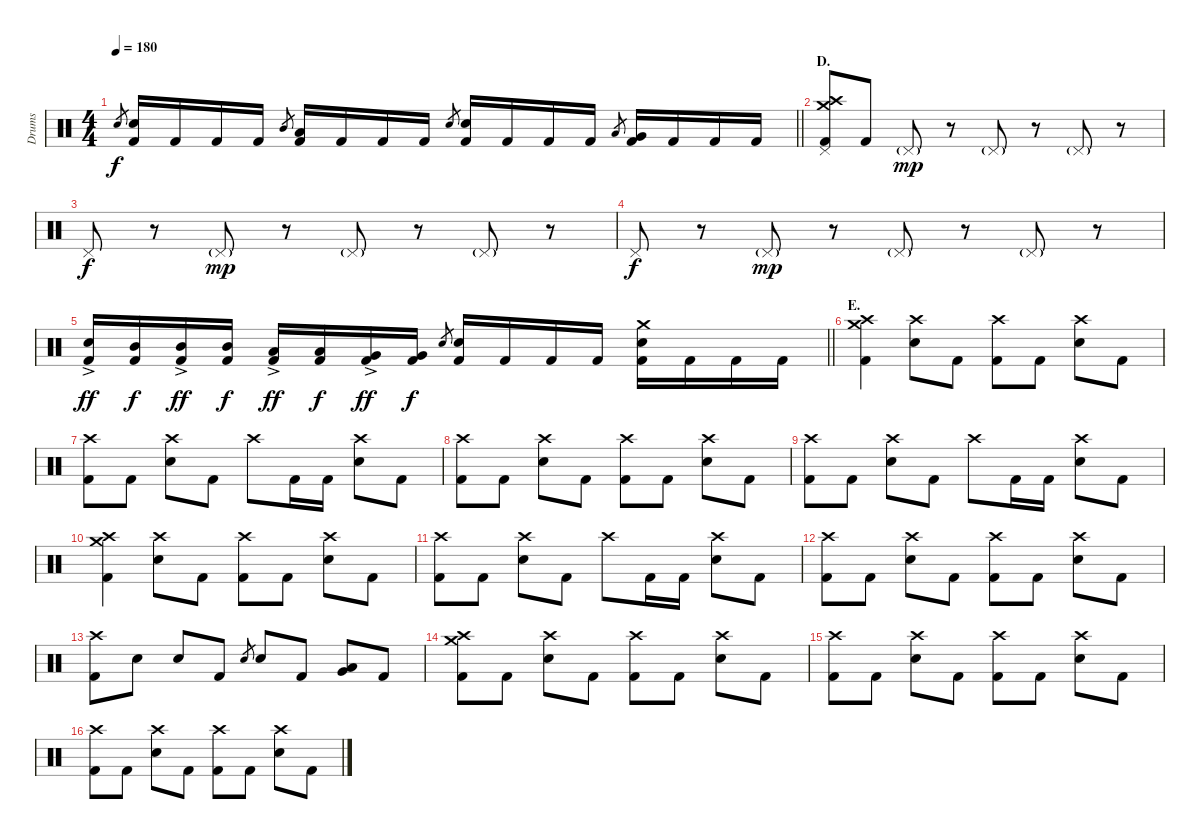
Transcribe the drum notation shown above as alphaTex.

\track ("Drums" "Drums") {instrument percussion}
\staff {score}
\articulation defaults
\ts (4 4)
\tempo 180
\clef neutral
\barLineRight lightlight
\ks c "Electric Snare (hit)".8{gr dy f}
("Electric Snare (hit)" "Kick (hit) 2").16 "Kick (hit) 2".16 "Kick (hit) 2".16 "Kick (hit) 2".16 "Mid Tom (hit)".8{gr} ("Low Tom (hit)" "Kick (hit) 2").16 "Kick (hit) 2".16 "Kick (hit) 2".16 "Kick (hit) 2".16 "Electric Snare (hit)".8{gr} ("Electric Snare (hit)" "Kick (hit) 2").16 "Kick (hit) 2".16 "Kick (hit) 2".16 "Kick (hit) 2".16 "Low Tom (hit)".8{gr} ("Very Low Tom (hit)" "Kick (hit) 2").16 "Kick (hit) 2".16 "Kick (hit) 2".16 "Kick (hit) 2".16 |
\section ("" "D.")
("Crash medium (hit)" "Crash high (hit)" "Pedal Hi-Hat (hit)" "Kick (hit) 2").8 "Kick (hit) 2".8 "Pedal Hi-Hat (hit)"{g}.8{dy mp} r.8 "Pedal Hi-Hat (hit)"{g}.8 r.8 "Pedal Hi-Hat (hit)"{g}.8 r.8 |
"Pedal Hi-Hat (hit)".8{dy f} r.8 "Pedal Hi-Hat (hit)"{g}.8{dy mp} r.8 "Pedal Hi-Hat (hit)"{g}.8 r.8 "Pedal Hi-Hat (hit)"{g}.8 r.8 |
"Pedal Hi-Hat (hit)".8{dy f} r.8 "Pedal Hi-Hat (hit)"{g}.8{dy mp} r.8 "Pedal Hi-Hat (hit)"{g}.8 r.8 "Pedal Hi-Hat (hit)"{g}.8 r.8 |
\barLineRight lightlight
("Electric Snare (hit)"{ac} "Kick (hit) 2").16{dy ff} ("Mid Tom (hit)" "Kick (hit) 2").16{dy f} ("Mid Tom (hit)"{ac} "Kick (hit) 2").16{dy ff} ("Mid Tom (hit)" "Kick (hit) 2").16{dy f} ("Low Tom (hit)"{ac} "Kick (hit) 2").16{dy ff} ("Low Tom (hit)" "Kick (hit) 2").16{dy f} ("Very Low Tom (hit)"{ac} "Kick (hit) 2").16{dy ff} ("Very Low Tom (hit)" "Kick (hit) 2").16{dy f} "Electric Snare (hit)".8{gr} ("Electric Snare (hit)" "Kick (hit) 2").16 "Kick (hit) 2".16 "Kick (hit) 2".16 "Kick (hit) 2".16 ("Crash medium (hit)" "Electric Snare (hit)" "Kick (hit) 2").16 "Kick (hit) 2".16 "Kick (hit) 2".16 "Kick (hit) 2".16 |
\section ("" "E.")
("Crash medium (hit)" "Crash high (hit)" "Kick (hit) 2").4 ("Crash high (hit)" "Electric Snare (hit)").8 "Kick (hit) 2".8 ("Crash high (hit)" "Kick (hit) 2").8 "Kick (hit) 2".8 ("Crash high (hit)" "Electric Snare (hit)").8 "Kick (hit) 2".8 |
("Crash high (hit)" "Kick (hit) 2").8 "Kick (hit) 2".8 ("Crash high (hit)" "Electric Snare (hit)").8 "Kick (hit) 2".8 "Crash high (hit)".8 "Kick (hit) 2".16 "Kick (hit) 2".16 ("Crash high (hit)" "Electric Snare (hit)").8 "Kick (hit) 2".8 |
("Crash high (hit)" "Kick (hit) 2").8 "Kick (hit) 2".8 ("Crash high (hit)" "Electric Snare (hit)").8 "Kick (hit) 2".8 ("Crash high (hit)" "Kick (hit) 2").8 "Kick (hit) 2".8 ("Crash high (hit)" "Electric Snare (hit)").8 "Kick (hit) 2".8 |
("Crash high (hit)" "Kick (hit) 2").8 "Kick (hit) 2".8 ("Crash high (hit)" "Electric Snare (hit)").8 "Kick (hit) 2".8 "Crash high (hit)".8 "Kick (hit) 2".16 "Kick (hit) 2".16 ("Crash high (hit)" "Electric Snare (hit)").8 "Kick (hit) 2".8 |
("Crash medium (hit)" "Crash high (hit)" "Kick (hit) 2").4 ("Crash high (hit)" "Electric Snare (hit)").8 "Kick (hit) 2".8 ("Crash high (hit)" "Kick (hit) 2").8 "Kick (hit) 2".8 ("Crash high (hit)" "Electric Snare (hit)").8 "Kick (hit) 2".8 |
("Crash high (hit)" "Kick (hit) 2").8 "Kick (hit) 2".8 ("Crash high (hit)" "Electric Snare (hit)").8 "Kick (hit) 2".8 "Crash high (hit)".8 "Kick (hit) 2".16 "Kick (hit) 2".16 ("Crash high (hit)" "Electric Snare (hit)").8 "Kick (hit) 2".8 |
("Crash high (hit)" "Kick (hit) 2").8 "Kick (hit) 2".8 ("Crash high (hit)" "Electric Snare (hit)").8 "Kick (hit) 2".8 ("Crash high (hit)" "Kick (hit) 2").8 "Kick (hit) 2".8 ("Crash high (hit)" "Electric Snare (hit)").8 "Kick (hit) 2".8 |
("Crash high (hit)" "Kick (hit) 2").8 "Electric Snare (hit)".8 "Electric Snare (hit)".8 "Kick (hit) 2".8 "Electric Snare (hit)".8{gr} "Electric Snare (hit)".8 "Kick (hit) 2".8 ("Low Tom (hit)" "Very Low Tom (hit)").8{bu 120} "Kick (hit) 2".8 |
("Crash medium (hit)" "Crash high (hit)" "Kick (hit) 2").8 "Kick (hit) 2".8 ("Crash high (hit)" "Electric Snare (hit)").8 "Kick (hit) 2".8 ("Crash high (hit)" "Kick (hit) 2").8 "Kick (hit) 2".8 ("Crash high (hit)" "Electric Snare (hit)").8 "Kick (hit) 2".8 |
("Crash high (hit)" "Kick (hit) 2").8 "Kick (hit) 2".8 ("Crash high (hit)" "Electric Snare (hit)").8 "Kick (hit) 2".8 ("Crash high (hit)" "Kick (hit) 2").8 "Kick (hit) 2".8 ("Crash high (hit)" "Electric Snare (hit)").8 "Kick (hit) 2".8 |
("Crash high (hit)" "Kick (hit) 2").8 "Kick (hit) 2".8 ("Crash high (hit)" "Electric Snare (hit)").8 "Kick (hit) 2".8 ("Crash high (hit)" "Kick (hit) 2").8 "Kick (hit) 2".8 ("Crash high (hit)" "Electric Snare (hit)").8 "Kick (hit) 2".8
